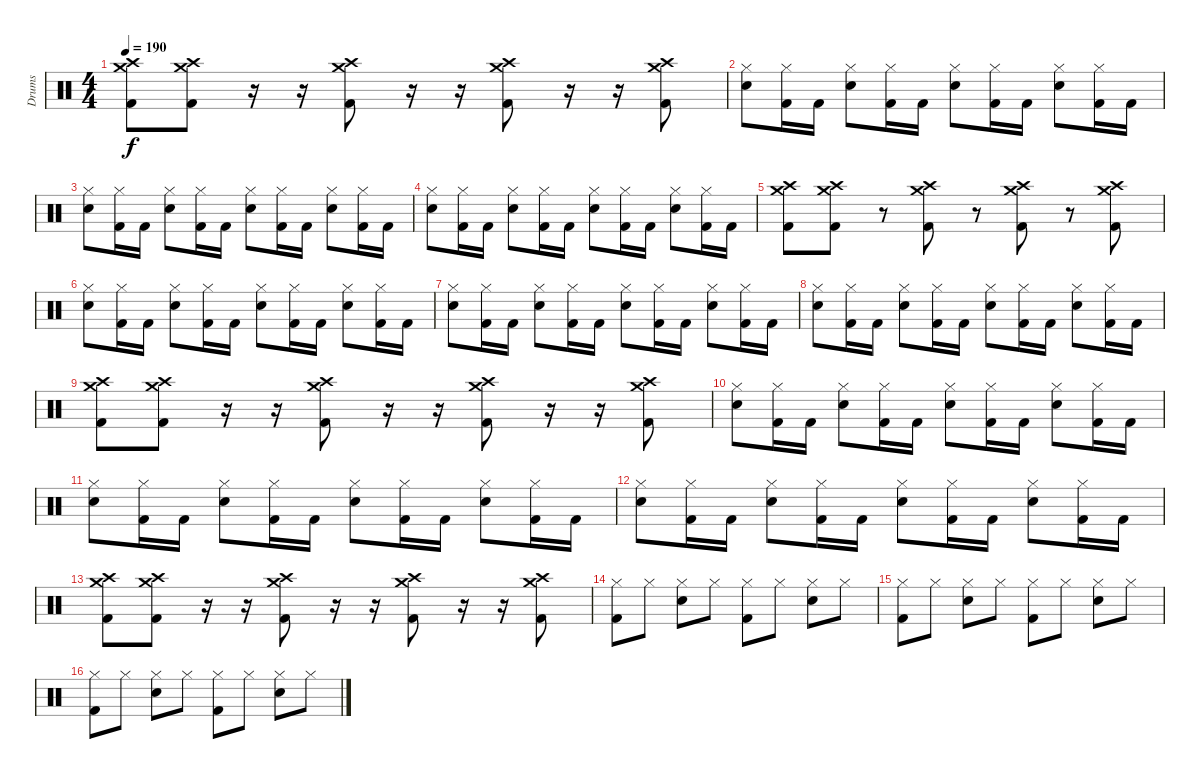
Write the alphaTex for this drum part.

\track ("Drums" "Drums") {instrument percussion}
\staff {score}
\articulation defaults
\ts (4 4)
\tempo 190
\clef neutral
\ks c
("Crash high (hit)" "Crash medium (hit)" "Kick (hit) 2").8{dy f} ("Crash high (hit)" "Crash medium (hit)" "Kick (hit) 2").8 r.16 r.16 ("Crash high (hit)" "Crash medium (hit)" "Kick (hit) 2").8 r.16 r.16 ("Crash high (hit)" "Crash medium (hit)" "Kick (hit) 2").8 r.16 r.16 ("Crash high (hit)" "Crash medium (hit)" "Kick (hit) 2").8 |
("Snare (hit) 2" "Hi-Hat (closed)").8 ("Kick (hit) 2" "Hi-Hat (closed)").16 "Kick (hit) 2".16 ("Snare (hit) 2" "Hi-Hat (closed)").8 ("Kick (hit) 2" "Hi-Hat (closed)").16 "Kick (hit) 2".16 ("Snare (hit) 2" "Hi-Hat (closed)").8 ("Kick (hit) 2" "Hi-Hat (closed)").16 "Kick (hit) 2".16 ("Snare (hit) 2" "Hi-Hat (closed)").8 ("Kick (hit) 2" "Hi-Hat (closed)").16 "Kick (hit) 2".16 |
("Snare (hit) 2" "Hi-Hat (closed)").8 ("Kick (hit) 2" "Hi-Hat (closed)").16 "Kick (hit) 2".16 ("Snare (hit) 2" "Hi-Hat (closed)").8 ("Kick (hit) 2" "Hi-Hat (closed)").16 "Kick (hit) 2".16 ("Snare (hit) 2" "Hi-Hat (closed)").8 ("Kick (hit) 2" "Hi-Hat (closed)").16 "Kick (hit) 2".16 ("Snare (hit) 2" "Hi-Hat (closed)").8 ("Kick (hit) 2" "Hi-Hat (closed)").16 "Kick (hit) 2".16 |
("Snare (hit) 2" "Hi-Hat (closed)").8 ("Kick (hit) 2" "Hi-Hat (closed)").16 "Kick (hit) 2".16 ("Snare (hit) 2" "Hi-Hat (closed)").8 ("Kick (hit) 2" "Hi-Hat (closed)").16 "Kick (hit) 2".16 ("Snare (hit) 2" "Hi-Hat (closed)").8 ("Kick (hit) 2" "Hi-Hat (closed)").16 "Kick (hit) 2".16 ("Snare (hit) 2" "Hi-Hat (closed)").8 ("Kick (hit) 2" "Hi-Hat (closed)").16 "Kick (hit) 2".16 |
("Crash high (hit)" "Crash medium (hit)" "Kick (hit) 2").8 ("Crash high (hit)" "Crash medium (hit)" "Kick (hit) 2").8 r.8 ("Crash high (hit)" "Crash medium (hit)" "Kick (hit) 2").8 r.8 ("Crash high (hit)" "Crash medium (hit)" "Kick (hit) 2").8 r.8 ("Crash high (hit)" "Crash medium (hit)" "Kick (hit) 2").8 |
("Snare (hit) 2" "Hi-Hat (closed)").8 ("Kick (hit) 2" "Hi-Hat (closed)").16 "Kick (hit) 2".16 ("Snare (hit) 2" "Hi-Hat (closed)").8 ("Kick (hit) 2" "Hi-Hat (closed)").16 "Kick (hit) 2".16 ("Snare (hit) 2" "Hi-Hat (closed)").8 ("Kick (hit) 2" "Hi-Hat (closed)").16 "Kick (hit) 2".16 ("Snare (hit) 2" "Hi-Hat (closed)").8 ("Kick (hit) 2" "Hi-Hat (closed)").16 "Kick (hit) 2".16 |
("Snare (hit) 2" "Hi-Hat (closed)").8 ("Kick (hit) 2" "Hi-Hat (closed)").16 "Kick (hit) 2".16 ("Snare (hit) 2" "Hi-Hat (closed)").8 ("Kick (hit) 2" "Hi-Hat (closed)").16 "Kick (hit) 2".16 ("Snare (hit) 2" "Hi-Hat (closed)").8 ("Kick (hit) 2" "Hi-Hat (closed)").16 "Kick (hit) 2".16 ("Snare (hit) 2" "Hi-Hat (closed)").8 ("Kick (hit) 2" "Hi-Hat (closed)").16 "Kick (hit) 2".16 |
("Snare (hit) 2" "Hi-Hat (closed)").8 ("Kick (hit) 2" "Hi-Hat (closed)").16 "Kick (hit) 2".16 ("Snare (hit) 2" "Hi-Hat (closed)").8 ("Kick (hit) 2" "Hi-Hat (closed)").16 "Kick (hit) 2".16 ("Snare (hit) 2" "Hi-Hat (closed)").8 ("Kick (hit) 2" "Hi-Hat (closed)").16 "Kick (hit) 2".16 ("Snare (hit) 2" "Hi-Hat (closed)").8 ("Kick (hit) 2" "Hi-Hat (closed)").16 "Kick (hit) 2".16 |
("Crash high (hit)" "Crash medium (hit)" "Kick (hit) 2").8 ("Crash high (hit)" "Crash medium (hit)" "Kick (hit) 2").8 r.16 r.16 ("Crash high (hit)" "Crash medium (hit)" "Kick (hit) 2").8 r.16 r.16 ("Crash high (hit)" "Crash medium (hit)" "Kick (hit) 2").8 r.16 r.16 ("Crash high (hit)" "Crash medium (hit)" "Kick (hit) 2").8 |
("Snare (hit) 2" "Hi-Hat (closed)").8 ("Kick (hit) 2" "Hi-Hat (closed)").16 "Kick (hit) 2".16 ("Snare (hit) 2" "Hi-Hat (closed)").8 ("Kick (hit) 2" "Hi-Hat (closed)").16 "Kick (hit) 2".16 ("Snare (hit) 2" "Hi-Hat (closed)").8 ("Kick (hit) 2" "Hi-Hat (closed)").16 "Kick (hit) 2".16 ("Snare (hit) 2" "Hi-Hat (closed)").8 ("Kick (hit) 2" "Hi-Hat (closed)").16 "Kick (hit) 2".16 |
("Snare (hit) 2" "Hi-Hat (closed)").8 ("Kick (hit) 2" "Hi-Hat (closed)").16 "Kick (hit) 2".16 ("Snare (hit) 2" "Hi-Hat (closed)").8 ("Kick (hit) 2" "Hi-Hat (closed)").16 "Kick (hit) 2".16 ("Snare (hit) 2" "Hi-Hat (closed)").8 ("Kick (hit) 2" "Hi-Hat (closed)").16 "Kick (hit) 2".16 ("Snare (hit) 2" "Hi-Hat (closed)").8 ("Kick (hit) 2" "Hi-Hat (closed)").16 "Kick (hit) 2".16 |
("Snare (hit) 2" "Hi-Hat (closed)").8 ("Kick (hit) 2" "Hi-Hat (closed)").16 "Kick (hit) 2".16 ("Snare (hit) 2" "Hi-Hat (closed)").8 ("Kick (hit) 2" "Hi-Hat (closed)").16 "Kick (hit) 2".16 ("Snare (hit) 2" "Hi-Hat (closed)").8 ("Kick (hit) 2" "Hi-Hat (closed)").16 "Kick (hit) 2".16 ("Snare (hit) 2" "Hi-Hat (closed)").8 ("Kick (hit) 2" "Hi-Hat (closed)").16 "Kick (hit) 2".16 |
("Crash high (hit)" "Crash medium (hit)" "Kick (hit) 2").8 ("Crash high (hit)" "Crash medium (hit)" "Kick (hit) 2").8 r.16 r.16 ("Crash high (hit)" "Crash medium (hit)" "Kick (hit) 2").8 r.16 r.16 ("Crash high (hit)" "Crash medium (hit)" "Kick (hit) 2").8 r.16 r.16 ("Crash high (hit)" "Crash medium (hit)" "Kick (hit) 2").8 |
("Kick (hit) 2" "Hi-Hat (closed)").8 "Hi-Hat (closed)".8 ("Snare (hit) 2" "Hi-Hat (closed)").8 "Hi-Hat (closed)".8 ("Kick (hit) 2" "Hi-Hat (closed)").8 "Hi-Hat (closed)".8 ("Snare (hit) 2" "Hi-Hat (closed)").8 "Hi-Hat (closed)".8 |
("Kick (hit) 2" "Hi-Hat (closed)").8 "Hi-Hat (closed)".8 ("Snare (hit) 2" "Hi-Hat (closed)").8 "Hi-Hat (closed)".8 ("Kick (hit) 2" "Hi-Hat (closed)").8 "Hi-Hat (closed)".8 ("Snare (hit) 2" "Hi-Hat (closed)").8 "Hi-Hat (closed)".8 |
("Kick (hit) 2" "Hi-Hat (closed)").8 "Hi-Hat (closed)".8 ("Snare (hit) 2" "Hi-Hat (closed)").8 "Hi-Hat (closed)".8 ("Kick (hit) 2" "Hi-Hat (closed)").8 "Hi-Hat (closed)".8 ("Snare (hit) 2" "Hi-Hat (closed)").8 "Hi-Hat (closed)".8
